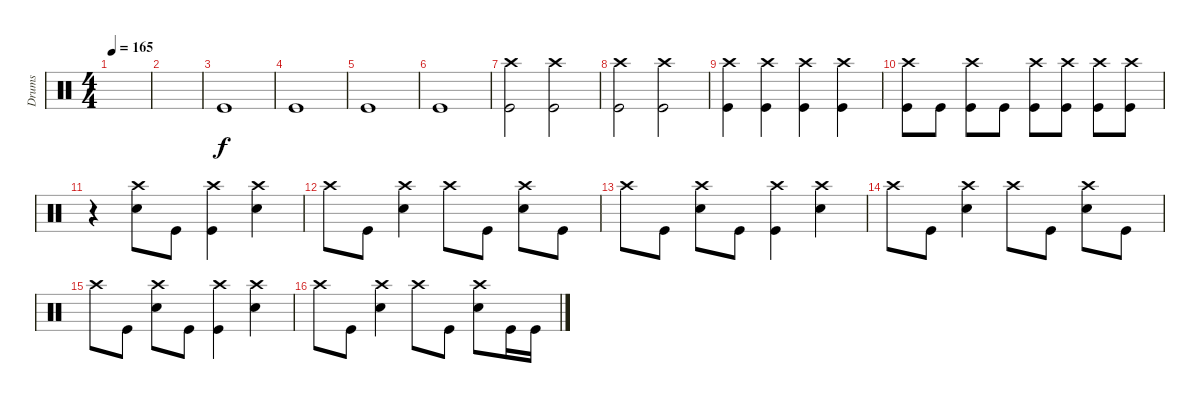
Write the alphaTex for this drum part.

\track ("Drums" "Drums") {instrument percussion}
\staff {score}
\articulation defaults
\ts (4 4)
\tempo 165
\clef neutral
\ks c
|
|
"Kick (hit)".1 |
"Kick (hit)".1 |
"Kick (hit)".1 |
"Kick (hit)".1 |
("Crash high (hit)" "Kick (hit)").2 ("Crash high (hit)" "Kick (hit)").2 |
("Crash high (hit)" "Kick (hit)").2 ("Crash high (hit)" "Kick (hit)").2 |
("Crash high (hit)" "Kick (hit)").4 ("Crash high (hit)" "Kick (hit)").4 ("Crash high (hit)" "Kick (hit)").4 ("Crash high (hit)" "Kick (hit)").4 |
("Crash high (hit)" "Kick (hit)").8 "Kick (hit)".8 ("Crash high (hit)" "Kick (hit)").8 "Kick (hit)".8 ("Crash high (hit)" "Kick (hit)").8 ("Crash high (hit)" "Kick (hit)").8 ("Crash high (hit)" "Kick (hit)").8 ("Crash high (hit)" "Kick (hit)").8 |
r.4 ("Crash high (hit)" "Snare (hit) 2").8 "Kick (hit)".8 ("Crash high (hit)" "Kick (hit)").4 ("Crash high (hit)" "Snare (hit) 2").4 |
"Crash high (hit)".8 "Kick (hit)".8 ("Crash high (hit)" "Snare (hit) 2").4 "Crash high (hit)".8 "Kick (hit)".8 ("Crash high (hit)" "Snare (hit) 2").8 "Kick (hit)".8 |
"Crash high (hit)".8 "Kick (hit)".8 ("Crash high (hit)" "Snare (hit) 2").8 "Kick (hit)".8 ("Crash high (hit)" "Kick (hit)").4 ("Crash high (hit)" "Snare (hit) 2").4 |
"Crash high (hit)".8 "Kick (hit)".8 ("Crash high (hit)" "Snare (hit) 2").4 "Crash high (hit)".8 "Kick (hit)".8 ("Crash high (hit)" "Snare (hit) 2").8 "Kick (hit)".8 |
"Crash high (hit)".8 "Kick (hit)".8 ("Crash high (hit)" "Snare (hit) 2").8 "Kick (hit)".8 ("Crash high (hit)" "Kick (hit)").4 ("Crash high (hit)" "Snare (hit) 2").4 |
"Crash high (hit)".8 "Kick (hit)".8 ("Crash high (hit)" "Snare (hit) 2").4 "Crash high (hit)".8 "Kick (hit)".8 ("Crash high (hit)" "Snare (hit) 2").8 "Kick (hit)".16 "Kick (hit)".16
